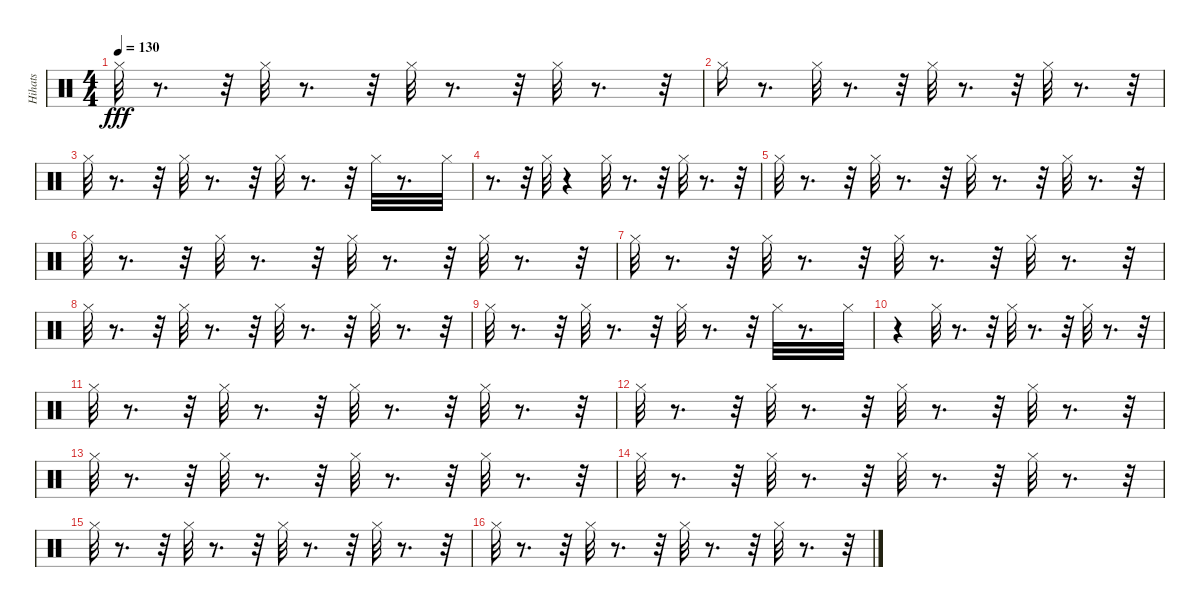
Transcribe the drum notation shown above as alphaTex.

\track ("Hihats" "Hihats") {instrument percussion}
\staff {score}
\articulation defaults
\ts (4 4)
\tempo 130
\clef neutral
\ks c "Hi-Hat (closed)".32{dy fff}
r.8{d} r.32 "Hi-Hat (closed)".32 r.8{d} r.32 "Hi-Hat (closed)".32 r.8{d} r.32 "Hi-Hat (closed)".32 r.8{d} r.32 |
"Hi-Hat (closed)".16 r.8{d} "Hi-Hat (closed)".32 r.8{d} r.32 "Hi-Hat (closed)".32 r.8{d} r.32 "Hi-Hat (closed)".32 r.8{d} r.32 |
"Hi-Hat (closed)".32 r.8{d} r.32 "Hi-Hat (closed)".32 r.8{d} r.32 "Hi-Hat (closed)".32 r.8{d} r.32 "Hi-Hat (closed)".32 r.8{d} "Hi-Hat (closed)".32 |
r.8{d} r.32 "Hi-Hat (closed)".32 r.4 "Hi-Hat (closed)".32 r.8{d} r.32 "Hi-Hat (closed)".32 r.8{d} r.32 |
"Hi-Hat (closed)".32 r.8{d} r.32 "Hi-Hat (closed)".32 r.8{d} r.32 "Hi-Hat (closed)".32 r.8{d} r.32 "Hi-Hat (closed)".32 r.8{d} r.32 |
"Hi-Hat (closed)".32 r.8{d} r.32 "Hi-Hat (closed)".32 r.8{d} r.32 "Hi-Hat (closed)".32 r.8{d} r.32 "Hi-Hat (closed)".32 r.8{d} r.32 |
"Hi-Hat (closed)".32 r.8{d} r.32 "Hi-Hat (closed)".32 r.8{d} r.32 "Hi-Hat (closed)".32 r.8{d} r.32 "Hi-Hat (closed)".32 r.8{d} r.32 |
"Hi-Hat (closed)".32 r.8{d} r.32 "Hi-Hat (closed)".32 r.8{d} r.32 "Hi-Hat (closed)".32 r.8{d} r.32 "Hi-Hat (closed)".32 r.8{d} r.32 |
"Hi-Hat (closed)".32 r.8{d} r.32 "Hi-Hat (closed)".32 r.8{d} r.32 "Hi-Hat (closed)".32 r.8{d} r.32 "Hi-Hat (closed)".32 r.8{d} "Hi-Hat (closed)".32 |
r.4 "Hi-Hat (closed)".32 r.8{d} r.32 "Hi-Hat (closed)".32 r.8{d} r.32 "Hi-Hat (closed)".32 r.8{d} r.32 |
"Hi-Hat (closed)".32 r.8{d} r.32 "Hi-Hat (closed)".32 r.8{d} r.32 "Hi-Hat (closed)".32 r.8{d} r.32 "Hi-Hat (closed)".32 r.8{d} r.32 |
"Hi-Hat (closed)".32 r.8{d} r.32 "Hi-Hat (closed)".32 r.8{d} r.32 "Hi-Hat (closed)".32 r.8{d} r.32 "Hi-Hat (closed)".32 r.8{d} r.32 |
"Hi-Hat (closed)".32 r.8{d} r.32 "Hi-Hat (closed)".32 r.8{d} r.32 "Hi-Hat (closed)".32 r.8{d} r.32 "Hi-Hat (closed)".32 r.8{d} r.32 |
"Hi-Hat (closed)".32 r.8{d} r.32 "Hi-Hat (closed)".32 r.8{d} r.32 "Hi-Hat (closed)".32 r.8{d} r.32 "Hi-Hat (closed)".32 r.8{d} r.32 |
"Hi-Hat (closed)".32 r.8{d} r.32 "Hi-Hat (closed)".32 r.8{d} r.32 "Hi-Hat (closed)".32 r.8{d} r.32 "Hi-Hat (closed)".32 r.8{d} r.32 |
"Hi-Hat (closed)".32 r.8{d} r.32 "Hi-Hat (closed)".32 r.8{d} r.32 "Hi-Hat (closed)".32 r.8{d} r.32 "Hi-Hat (closed)".32 r.8{d} r.32
